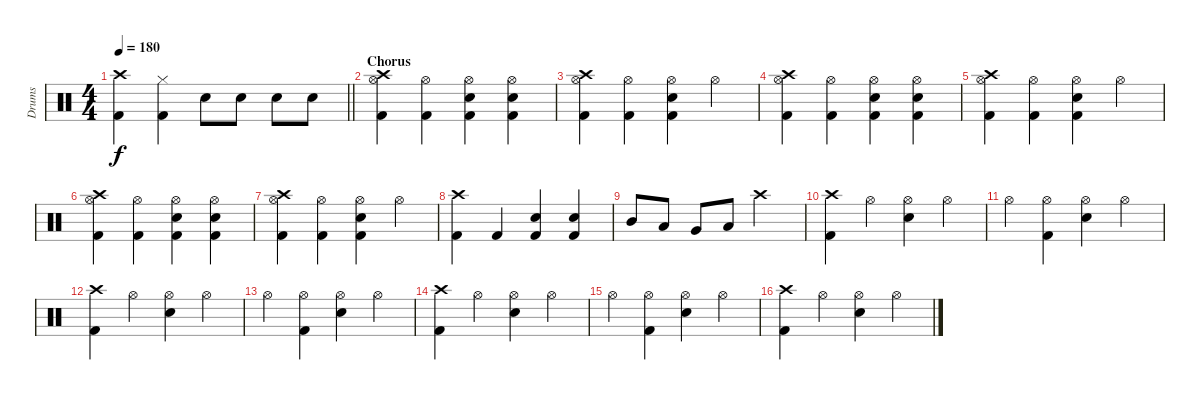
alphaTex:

\track ("Drums" "Drums") {instrument percussion}
\staff {score}
\articulation defaults
\ts (4 4)
\tempo 180
\clef neutral
\barLineRight lightlight
\ks c
("Kick (hit) 2" "Crash high (hit)").4{dy f} ("Kick (hit) 2" "Hi-Hat (closed)").4 "Electric Snare (hit)".8 "Electric Snare (hit)".8 "Electric Snare (hit)".8 "Electric Snare (hit)".8 |
\section ("" "Chorus")
("Kick (hit) 2" "Crash high (hit)" "Hi-Hat (open)").4 ("Kick (hit) 2" "Hi-Hat (open)").4 ("Electric Snare (hit)" "Kick (hit) 2" "Hi-Hat (open)").4 ("Electric Snare (hit)" "Kick (hit) 2" "Hi-Hat (open)").4 |
("Kick (hit) 2" "Crash high (hit)" "Hi-Hat (open)").4 ("Kick (hit) 2" "Hi-Hat (open)").4 ("Electric Snare (hit)" "Kick (hit) 2" "Hi-Hat (open)").4 "Hi-Hat (open)".4 |
("Kick (hit) 2" "Crash high (hit)" "Hi-Hat (open)").4 ("Kick (hit) 2" "Hi-Hat (open)").4 ("Electric Snare (hit)" "Kick (hit) 2" "Hi-Hat (open)").4 ("Electric Snare (hit)" "Kick (hit) 2" "Hi-Hat (open)").4 |
("Kick (hit) 2" "Crash high (hit)" "Hi-Hat (open)").4 ("Kick (hit) 2" "Hi-Hat (open)").4 ("Electric Snare (hit)" "Kick (hit) 2" "Hi-Hat (open)").4 "Hi-Hat (open)".4 |
("Kick (hit) 2" "Crash high (hit)" "Hi-Hat (open)").4 ("Kick (hit) 2" "Hi-Hat (open)").4 ("Electric Snare (hit)" "Kick (hit) 2" "Hi-Hat (open)").4 ("Electric Snare (hit)" "Kick (hit) 2" "Hi-Hat (open)").4 |
("Kick (hit) 2" "Crash high (hit)" "Hi-Hat (open)").4 ("Kick (hit) 2" "Hi-Hat (open)").4 ("Electric Snare (hit)" "Kick (hit) 2" "Hi-Hat (open)").4 "Hi-Hat (open)".4 |
("Kick (hit) 2" "Crash high (hit)").4 "Kick (hit) 2".4 ("Electric Snare (hit)" "Kick (hit) 2").4 ("Electric Snare (hit)" "Kick (hit) 2").4 |
"Mid Tom (hit)".8 "Low Tom (hit)".8 "Very Low Tom (hit)".8 "Low Floor Tom (hit)".8 "Crash high (hit)".2 |
("Kick (hit) 2" "Crash high (hit)").4 "Hi-Hat (open)".4 ("Hi-Hat (open)" "Electric Snare (hit)").4 "Hi-Hat (open)".4 |
"Hi-Hat (open)".4 ("Hi-Hat (open)" "Kick (hit) 2").4 ("Hi-Hat (open)" "Electric Snare (hit)").4 "Hi-Hat (open)".4 |
("Kick (hit) 2" "Crash high (hit)").4 "Hi-Hat (open)".4 ("Hi-Hat (open)" "Electric Snare (hit)").4 "Hi-Hat (open)".4 |
"Hi-Hat (open)".4 ("Hi-Hat (open)" "Kick (hit) 2").4 ("Hi-Hat (open)" "Electric Snare (hit)").4 "Hi-Hat (open)".4 |
("Kick (hit) 2" "Crash high (hit)").4 "Hi-Hat (open)".4 ("Hi-Hat (open)" "Electric Snare (hit)").4 "Hi-Hat (open)".4 |
"Hi-Hat (open)".4 ("Hi-Hat (open)" "Kick (hit) 2").4 ("Hi-Hat (open)" "Electric Snare (hit)").4 "Hi-Hat (open)".4 |
("Kick (hit) 2" "Crash high (hit)").4 "Hi-Hat (open)".4 ("Hi-Hat (open)" "Electric Snare (hit)").4 "Hi-Hat (open)".4
